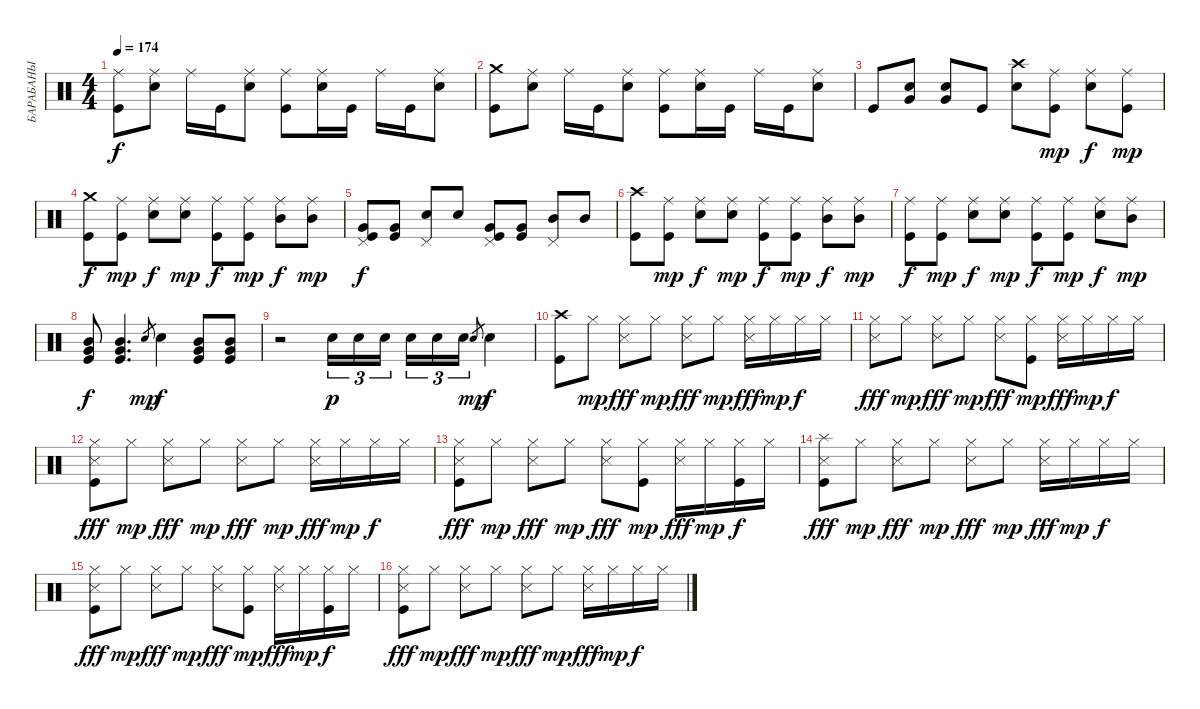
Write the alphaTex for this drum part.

\track ("БАРАБАНЫ" "БАРАБАНЫ") {instrument percussion}
\staff {score}
\articulation defaults
\ts (4 4)
\tempo 174
\clef neutral
\ks c
("Ride (middle)" "Kick (hit)").8{dy f} ("Ride (middle)" "Electric Snare (hit)").8 "Ride (middle)".16 "Kick (hit)".16 ("Ride (middle)" "Electric Snare (hit)").8 ("Ride (middle)" "Kick (hit)").8 ("Ride (middle)" "Electric Snare (hit)").16 "Kick (hit)".16 "Ride (middle)".16 "Kick (hit)".16 ("Ride (middle)" "Electric Snare (hit)").8 |
("Crash medium (hit)" "Kick (hit)").8 ("Ride (middle)" "Electric Snare (hit)").8 "Ride (middle)".16 "Kick (hit)".16 ("Ride (middle)" "Electric Snare (hit)").8 ("Ride (middle)" "Kick (hit)").8 ("Ride (middle)" "Electric Snare (hit)").16 "Kick (hit)".16 "Ride (middle)".16 "Kick (hit)".16 ("Ride (middle)" "Electric Snare (hit)").8 |
"Kick (hit)".8 ("Very Low Tom (hit)" "Electric Snare (hit)").8 ("Very Low Tom (hit)" "Electric Snare (hit)").8 "Kick (hit)".8 ("Crash high (hit)" "Electric Snare (hit)").8 ("Ride (middle)" "Kick (hit)").8{dy mp} ("Ride (middle)" "Electric Snare (hit)").8{dy f} ("Ride (middle)" "Kick (hit)").8{dy mp} |
("Crash medium (hit)" "Kick (hit)").8{dy f} ("Ride (middle)" "Kick (hit)").8{dy mp} ("Ride (middle)" "Electric Snare (hit)").8{dy f} ("Ride (middle)" "Electric Snare (hit)").8{dy mp} ("Ride (middle)" "Kick (hit)").8{dy f} ("Ride (middle)" "Kick (hit)").8{dy mp} ("Ride (middle)" "Mid Tom (hit)").8{dy f} ("Ride (middle)" "Mid Tom (hit)").8{dy mp} |
("Pedal Hi-Hat (hit)" "Very Low Tom (hit)" "Kick (hit)").8{dy f} ("Very Low Tom (hit)" "Kick (hit)").8 ("Pedal Hi-Hat (hit)" "Electric Snare (hit)").8 "Electric Snare (hit)".8 ("Pedal Hi-Hat (hit)" "Very Low Tom (hit)" "Kick (hit)").8 ("Very Low Tom (hit)" "Kick (hit)").8 ("Pedal Hi-Hat (hit)" "Mid Tom (hit)").8 "Mid Tom (hit)".8 |
("Crash high (hit)" "Kick (hit)").8 ("Ride (middle)" "Kick (hit)").8{dy mp} ("Ride (middle)" "Electric Snare (hit)").8{dy f} ("Ride (middle)" "Electric Snare (hit)").8{dy mp} ("Ride (middle)" "Kick (hit)").8{dy f} ("Ride (middle)" "Kick (hit)").8{dy mp} ("Ride (middle)" "Mid Tom (hit)").8{dy f} ("Ride (middle)" "Mid Tom (hit)").8{dy mp} |
("Ride (middle)" "Kick (hit)").8{dy f} ("Ride (middle)" "Kick (hit)").8{dy mp} ("Ride (middle)" "Electric Snare (hit)").8{dy f} ("Ride (middle)" "Electric Snare (hit)").8{dy mp} ("Ride (middle)" "Kick (hit)").8{dy f} ("Ride (middle)" "Kick (hit)").8{dy mp} ("Ride (middle)" "Electric Snare (hit)").8{dy f} ("Ride (middle)" "Mid Tom (hit)").8{dy mp} |
("Mid Tom (hit)" "Very Low Tom (hit)" "Kick (hit)").8{dy f} ("Mid Tom (hit)" "Very Low Tom (hit)" "Kick (hit)").4{d} "Electric Snare (hit)".8{gr dy mp} "Electric Snare (hit)".4{dy f} ("Mid Tom (hit)" "Very Low Tom (hit)" "Kick (hit)").8 ("Mid Tom (hit)" "Very Low Tom (hit)" "Kick (hit)").8 |
r.2 "Electric Snare (hit)".16{tu (3 2) dy p} "Electric Snare (hit)".16{tu (3 2)} "Electric Snare (hit)".16{tu (3 2) beam splitsecondary} "Electric Snare (hit)".16{tu (3 2)} "Electric Snare (hit)".16{tu (3 2)} "Electric Snare (hit)".16{tu (3 2)} "Electric Snare (hit)".8{gr dy mp} "Electric Snare (hit)".4{dy f} |
("Crash high (hit)" "Kick (hit)").8 "Hi-Hat (closed)".8{dy mp} ("Hi-Hat (closed)" "Snare (side stick) 3").8{dy fff} "Hi-Hat (closed)".8{dy mp} ("Hi-Hat (closed)" "Snare (side stick) 3").8{dy fff} "Hi-Hat (closed)".8{dy mp} ("Hi-Hat (closed)" "Snare (side stick) 3").16{dy fff} "Hi-Hat (closed)".16{dy mp} "Hi-Hat (closed)".16{dy f} "Hi-Hat (closed)".16 |
("Hi-Hat (closed)" "Snare (side stick) 3").8{dy fff} "Hi-Hat (closed)".8{dy mp} ("Hi-Hat (closed)" "Snare (side stick) 3").8{dy fff} "Hi-Hat (closed)".8{dy mp} ("Hi-Hat (closed)" "Snare (side stick) 3").8{dy fff} ("Hi-Hat (closed)" "Kick (hit)").8{dy mp} ("Hi-Hat (closed)" "Snare (side stick) 3").16{dy fff} "Hi-Hat (closed)".16{dy mp} "Hi-Hat (closed)".16{dy f} "Hi-Hat (closed)".16 |
("Hi-Hat (closed)" "Snare (side stick) 3" "Kick (hit)").8{dy fff} "Hi-Hat (closed)".8{dy mp} ("Hi-Hat (closed)" "Snare (side stick) 3").8{dy fff} "Hi-Hat (closed)".8{dy mp} ("Hi-Hat (closed)" "Snare (side stick) 3").8{dy fff} "Hi-Hat (closed)".8{dy mp} ("Hi-Hat (closed)" "Snare (side stick) 3").16{dy fff} "Hi-Hat (closed)".16{dy mp} "Hi-Hat (closed)".16{dy f} "Hi-Hat (closed)".16 |
("Hi-Hat (closed)" "Snare (side stick) 3" "Kick (hit)").8{dy fff} "Hi-Hat (closed)".8{dy mp} ("Hi-Hat (closed)" "Snare (side stick) 3").8{dy fff} "Hi-Hat (closed)".8{dy mp} ("Hi-Hat (closed)" "Snare (side stick) 3").8{dy fff} ("Hi-Hat (closed)" "Kick (hit)").8{dy mp} ("Hi-Hat (closed)" "Snare (side stick) 3").16{dy fff} "Hi-Hat (closed)".16{dy mp} ("Hi-Hat (closed)" "Kick (hit)").16{dy f} "Hi-Hat (closed)".16 |
("Splash (hit)" "Snare (side stick) 3" "Kick (hit)").8{dy fff} "Hi-Hat (closed)".8{dy mp} ("Hi-Hat (closed)" "Snare (side stick) 3").8{dy fff} "Hi-Hat (closed)".8{dy mp} ("Hi-Hat (closed)" "Snare (side stick) 3").8{dy fff} "Hi-Hat (closed)".8{dy mp} ("Hi-Hat (closed)" "Snare (side stick) 3").16{dy fff} "Hi-Hat (closed)".16{dy mp} "Hi-Hat (closed)".16{dy f} "Hi-Hat (closed)".16 |
("Hi-Hat (closed)" "Snare (side stick) 3" "Kick (hit)").8{dy fff} "Hi-Hat (closed)".8{dy mp} ("Hi-Hat (closed)" "Snare (side stick) 3").8{dy fff} "Hi-Hat (closed)".8{dy mp} ("Hi-Hat (closed)" "Snare (side stick) 3").8{dy fff} ("Hi-Hat (closed)" "Kick (hit)").8{dy mp} ("Hi-Hat (closed)" "Snare (side stick) 3").16{dy fff} "Hi-Hat (closed)".16{dy mp} ("Hi-Hat (closed)" "Kick (hit)").16{dy f} "Hi-Hat (closed)".16 |
("Hi-Hat (closed)" "Snare (side stick) 3" "Kick (hit)").8{dy fff} "Hi-Hat (closed)".8{dy mp} ("Hi-Hat (closed)" "Snare (side stick) 3").8{dy fff} "Hi-Hat (closed)".8{dy mp} ("Hi-Hat (closed)" "Snare (side stick) 3").8{dy fff} "Hi-Hat (closed)".8{dy mp} ("Hi-Hat (closed)" "Snare (side stick) 3").16{dy fff} "Hi-Hat (closed)".16{dy mp} "Hi-Hat (closed)".16{dy f} "Hi-Hat (closed)".16
